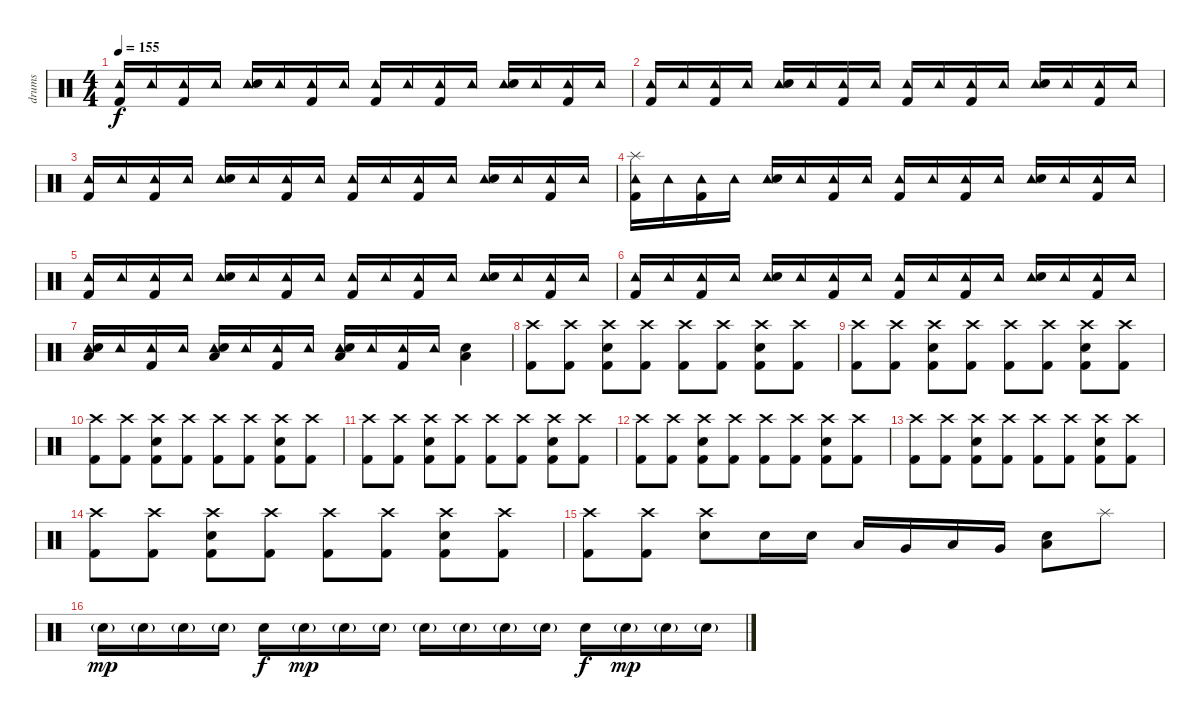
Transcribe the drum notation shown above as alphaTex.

\track ("drums" "drums") {instrument percussion}
\staff {score}
\articulation defaults
\ts (4 4)
\tempo 155
\clef neutral
\ks c
("Tambourine (hit)" "Kick (hit) 2").16{dy f} "Tambourine (hit)".16 ("Tambourine (hit)" "Kick (hit) 2").16 "Tambourine (hit)".16 ("Tambourine (hit)" "Snare (hit) 2").16 "Tambourine (hit)".16 ("Tambourine (hit)" "Kick (hit) 2").16 "Tambourine (hit)".16 ("Tambourine (hit)" "Kick (hit) 2").16 "Tambourine (hit)".16 ("Tambourine (hit)" "Kick (hit) 2").16 "Tambourine (hit)".16 ("Tambourine (hit)" "Snare (hit) 2").16 "Tambourine (hit)".16 ("Tambourine (hit)" "Kick (hit) 2").16 "Tambourine (hit)".16 |
("Tambourine (hit)" "Kick (hit) 2").16 "Tambourine (hit)".16 ("Tambourine (hit)" "Kick (hit) 2").16 "Tambourine (hit)".16 ("Tambourine (hit)" "Snare (hit) 2").16 "Tambourine (hit)".16 ("Tambourine (hit)" "Kick (hit) 2").16 "Tambourine (hit)".16 ("Tambourine (hit)" "Kick (hit) 2").16 "Tambourine (hit)".16 ("Tambourine (hit)" "Kick (hit) 2").16 "Tambourine (hit)".16 ("Tambourine (hit)" "Snare (hit) 2").16 "Tambourine (hit)".16 ("Tambourine (hit)" "Kick (hit) 2").16 "Tambourine (hit)".16 |
("Tambourine (hit)" "Kick (hit) 2").16 "Tambourine (hit)".16 ("Tambourine (hit)" "Kick (hit) 2").16 "Tambourine (hit)".16 ("Tambourine (hit)" "Snare (hit) 2").16 "Tambourine (hit)".16 ("Tambourine (hit)" "Kick (hit) 2").16 "Tambourine (hit)".16 ("Tambourine (hit)" "Kick (hit) 2").16 "Tambourine (hit)".16 ("Tambourine (hit)" "Kick (hit) 2").16 "Tambourine (hit)".16 ("Tambourine (hit)" "Snare (hit) 2").16 "Tambourine (hit)".16 ("Tambourine (hit)" "Kick (hit) 2").16 "Tambourine (hit)".16 |
("Splash (hit)" "Tambourine (hit)" "Kick (hit) 2").16 "Tambourine (hit)".16 ("Tambourine (hit)" "Kick (hit) 2").16 "Tambourine (hit)".16 ("Tambourine (hit)" "Snare (hit) 2").16 "Tambourine (hit)".16 ("Tambourine (hit)" "Kick (hit) 2").16 "Tambourine (hit)".16 ("Tambourine (hit)" "Kick (hit) 2").16 "Tambourine (hit)".16 ("Tambourine (hit)" "Kick (hit) 2").16 "Tambourine (hit)".16 ("Tambourine (hit)" "Snare (hit) 2").16 "Tambourine (hit)".16 ("Tambourine (hit)" "Kick (hit) 2").16 "Tambourine (hit)".16 |
("Tambourine (hit)" "Kick (hit) 2").16 "Tambourine (hit)".16 ("Tambourine (hit)" "Kick (hit) 2").16 "Tambourine (hit)".16 ("Tambourine (hit)" "Snare (hit) 2").16 "Tambourine (hit)".16 ("Tambourine (hit)" "Kick (hit) 2").16 "Tambourine (hit)".16 ("Tambourine (hit)" "Kick (hit) 2").16 "Tambourine (hit)".16 ("Tambourine (hit)" "Kick (hit) 2").16 "Tambourine (hit)".16 ("Tambourine (hit)" "Snare (hit) 2").16 "Tambourine (hit)".16 ("Tambourine (hit)" "Kick (hit) 2").16 "Tambourine (hit)".16 |
("Tambourine (hit)" "Kick (hit) 2").16 "Tambourine (hit)".16 ("Tambourine (hit)" "Kick (hit) 2").16 "Tambourine (hit)".16 ("Tambourine (hit)" "Snare (hit) 2").16 "Tambourine (hit)".16 ("Tambourine (hit)" "Kick (hit) 2").16 "Tambourine (hit)".16 ("Tambourine (hit)" "Kick (hit) 2").16 "Tambourine (hit)".16 ("Tambourine (hit)" "Kick (hit) 2").16 "Tambourine (hit)".16 ("Tambourine (hit)" "Snare (hit) 2").16 "Tambourine (hit)".16 ("Tambourine (hit)" "Kick (hit) 2").16 "Tambourine (hit)".16 |
("Tambourine (hit)" "Snare (hit) 2" "Low Floor Tom (hit)").16 "Tambourine (hit)".16 ("Tambourine (hit)" "Kick (hit) 2").16 "Tambourine (hit)".16 ("Tambourine (hit)" "Snare (hit) 2" "Low Floor Tom (hit)").16 "Tambourine (hit)".16 ("Tambourine (hit)" "Kick (hit) 2").16 "Tambourine (hit)".16 ("Tambourine (hit)" "Snare (hit) 2" "Low Floor Tom (hit)").16 "Tambourine (hit)".16 ("Tambourine (hit)" "Kick (hit) 2").16 "Tambourine (hit)".16 ("Snare (hit) 2" "Low Floor Tom (hit)").4 |
("Crash high (hit)" "Kick (hit) 2").8 ("Crash high (hit)" "Kick (hit) 2").8 ("Crash high (hit)" "Snare (hit) 2" "Kick (hit) 2").8 ("Crash high (hit)" "Kick (hit) 2").8 ("Crash high (hit)" "Kick (hit) 2").8 ("Crash high (hit)" "Kick (hit) 2").8 ("Crash high (hit)" "Snare (hit) 2" "Kick (hit) 2").8 ("Crash high (hit)" "Kick (hit) 2").8 |
("Crash high (hit)" "Kick (hit) 2").8 ("Crash high (hit)" "Kick (hit) 2").8 ("Crash high (hit)" "Snare (hit) 2" "Kick (hit) 2").8 ("Crash high (hit)" "Kick (hit) 2").8 ("Crash high (hit)" "Kick (hit) 2").8 ("Crash high (hit)" "Kick (hit) 2").8 ("Crash high (hit)" "Snare (hit) 2" "Kick (hit) 2").8 ("Crash high (hit)" "Kick (hit) 2").8 |
("Crash high (hit)" "Kick (hit) 2").8 ("Crash high (hit)" "Kick (hit) 2").8 ("Crash high (hit)" "Snare (hit) 2" "Kick (hit) 2").8 ("Crash high (hit)" "Kick (hit) 2").8 ("Crash high (hit)" "Kick (hit) 2").8 ("Crash high (hit)" "Kick (hit) 2").8 ("Crash high (hit)" "Snare (hit) 2" "Kick (hit) 2").8 ("Crash high (hit)" "Kick (hit) 2").8 |
("Crash high (hit)" "Kick (hit) 2").8 ("Crash high (hit)" "Kick (hit) 2").8 ("Crash high (hit)" "Snare (hit) 2" "Kick (hit) 2").8 ("Crash high (hit)" "Kick (hit) 2").8 ("Crash high (hit)" "Kick (hit) 2").8 ("Crash high (hit)" "Kick (hit) 2").8 ("Crash high (hit)" "Snare (hit) 2" "Kick (hit) 2").8 ("Crash high (hit)" "Kick (hit) 2").8 |
("Crash high (hit)" "Kick (hit) 2").8 ("Crash high (hit)" "Kick (hit) 2").8 ("Crash high (hit)" "Snare (hit) 2" "Kick (hit) 2").8 ("Crash high (hit)" "Kick (hit) 2").8 ("Crash high (hit)" "Kick (hit) 2").8 ("Crash high (hit)" "Kick (hit) 2").8 ("Crash high (hit)" "Snare (hit) 2" "Kick (hit) 2").8 ("Crash high (hit)" "Kick (hit) 2").8 |
("Crash high (hit)" "Kick (hit) 2").8 ("Crash high (hit)" "Kick (hit) 2").8 ("Crash high (hit)" "Snare (hit) 2" "Kick (hit) 2").8 ("Crash high (hit)" "Kick (hit) 2").8 ("Crash high (hit)" "Kick (hit) 2").8 ("Crash high (hit)" "Kick (hit) 2").8 ("Crash high (hit)" "Snare (hit) 2" "Kick (hit) 2").8 ("Crash high (hit)" "Kick (hit) 2").8 |
("Crash high (hit)" "Kick (hit) 2").8 ("Crash high (hit)" "Kick (hit) 2").8 ("Crash high (hit)" "Snare (hit) 2" "Kick (hit) 2").8 ("Crash high (hit)" "Kick (hit) 2").8 ("Crash high (hit)" "Kick (hit) 2").8 ("Crash high (hit)" "Kick (hit) 2").8 ("Crash high (hit)" "Snare (hit) 2" "Kick (hit) 2").8 ("Crash high (hit)" "Kick (hit) 2").8 |
("Crash high (hit)" "Kick (hit) 2").8 ("Crash high (hit)" "Kick (hit) 2").8 ("Crash high (hit)" "Snare (hit) 2").8 "Snare (hit) 2".16 "Snare (hit) 2".16 "Low Tom (hit)".16 "Very Low Tom (hit)".16 "Low Tom (hit)".16 "Very Low Tom (hit)".16 ("Low Floor Tom (hit)" "Snare (hit) 2").8 "Splash (hit)".8 |
"Snare (hit) 2"{g}.16{dy mp} "Snare (hit) 2"{g}.16 "Snare (hit) 2"{g}.16 "Snare (hit) 2"{g}.16 "Snare (hit) 2".16{dy f} "Snare (hit) 2"{g}.16{dy mp} "Snare (hit) 2"{g}.16 "Snare (hit) 2"{g}.16 "Snare (hit) 2"{g}.16 "Snare (hit) 2"{g}.16 "Snare (hit) 2"{g}.16 "Snare (hit) 2"{g}.16 "Snare (hit) 2".16{dy f} "Snare (hit) 2"{g}.16{dy mp} "Snare (hit) 2"{g}.16 "Snare (hit) 2"{g}.16
